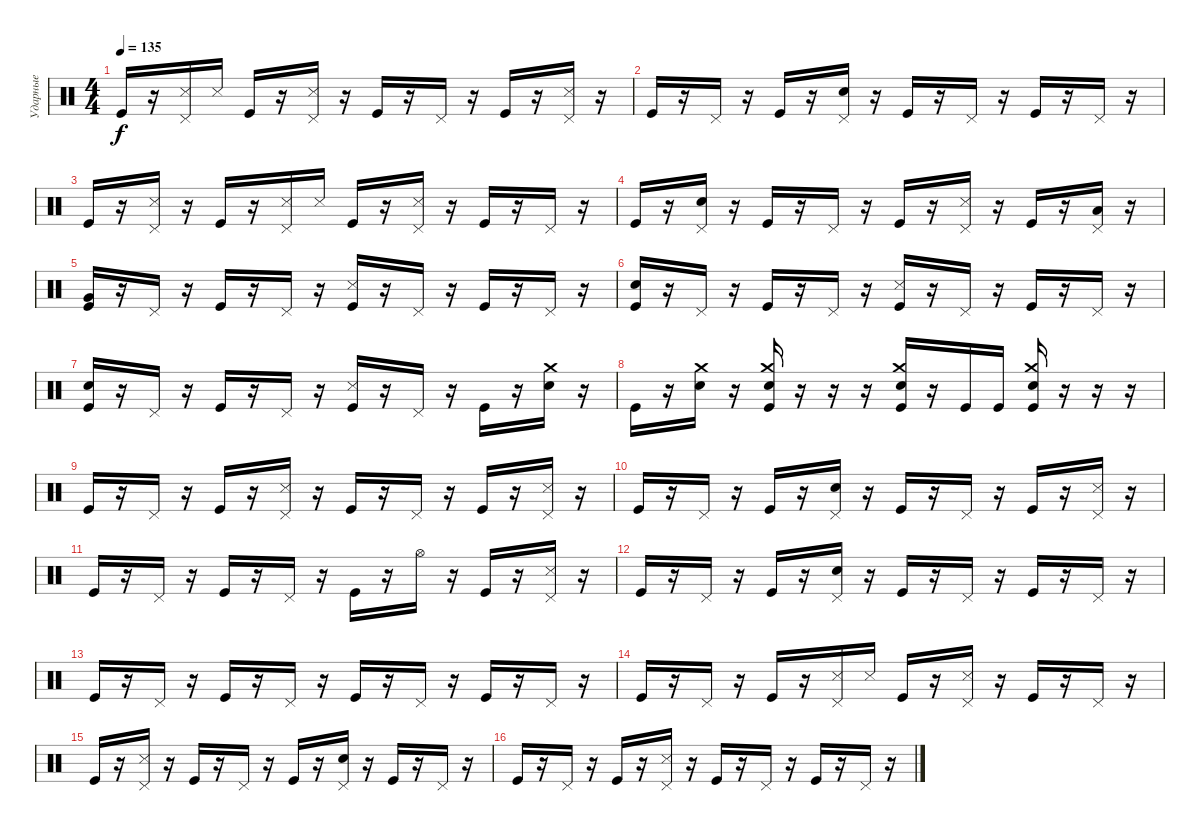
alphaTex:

\track ("Ударные" "Ударные") {instrument percussion}
\staff {score}
\articulation defaults
\ts (4 4)
\tempo 135
\clef neutral
\ks c "Kick (hit)".16{dy f}
r.16 ("Snare (side stick) 3" "Pedal Hi-Hat (hit)").16 "Snare (side stick) 3".16 "Kick (hit)".16 r.16 ("Snare (side stick) 3" "Pedal Hi-Hat (hit)").16 r.16 "Kick (hit)".16 r.16 "Pedal Hi-Hat (hit)".16 r.16 "Kick (hit)".16 r.16 ("Snare (side stick) 3" "Pedal Hi-Hat (hit)").16 r.16 |
"Kick (hit)".16 r.16 "Pedal Hi-Hat (hit)".16 r.16 "Kick (hit)".16 r.16 ("Snare (hit) 2" "Pedal Hi-Hat (hit)").16 r.16 "Kick (hit)".16 r.16 "Pedal Hi-Hat (hit)".16 r.16 "Kick (hit)".16 r.16 "Pedal Hi-Hat (hit)".16 r.16 |
"Kick (hit)".16 r.16 ("Snare (side stick) 3" "Pedal Hi-Hat (hit)").16 r.16 "Kick (hit)".16 r.16 ("Snare (side stick) 3" "Pedal Hi-Hat (hit)").16 "Snare (side stick) 3".16 "Kick (hit)".16 r.16 ("Snare (side stick) 3" "Pedal Hi-Hat (hit)").16 r.16 "Kick (hit)".16 r.16 "Pedal Hi-Hat (hit)".16 r.16 |
"Kick (hit)".16 r.16 ("Snare (hit) 2" "Pedal Hi-Hat (hit)").16 r.16 "Kick (hit)".16 r.16 "Pedal Hi-Hat (hit)".16 r.16 "Kick (hit)".16 r.16 ("Snare (side stick) 3" "Pedal Hi-Hat (hit)").16 r.16 "Kick (hit)".16 r.16 ("Low Tom (hit)" "Pedal Hi-Hat (hit)").16 r.16 |
("Very Low Tom (hit)" "Kick (hit)").16 r.16 "Pedal Hi-Hat (hit)".16 r.16 "Kick (hit)".16 r.16 "Pedal Hi-Hat (hit)".16 r.16 ("Snare (side stick) 3" "Kick (hit)").16 r.16 "Pedal Hi-Hat (hit)".16 r.16 "Kick (hit)".16 r.16 "Pedal Hi-Hat (hit)".16 r.16 |
("Snare (hit) 2" "Kick (hit)").16 r.16 "Pedal Hi-Hat (hit)".16 r.16 "Kick (hit)".16 r.16 "Pedal Hi-Hat (hit)".16 r.16 ("Snare (side stick) 3" "Kick (hit)").16 r.16 "Pedal Hi-Hat (hit)".16 r.16 "Kick (hit)".16 r.16 "Pedal Hi-Hat (hit)".16 r.16 |
("Snare (hit) 2" "Kick (hit)").16 r.16 "Pedal Hi-Hat (hit)".16 r.16 "Kick (hit)".16 r.16 "Pedal Hi-Hat (hit)".16 r.16 ("Snare (side stick) 3" "Kick (hit)").16 r.16 "Pedal Hi-Hat (hit)".16 r.16 "Kick (hit)".16 r.16 ("Crash medium (hit)" "Electric Snare (hit)").16 r.16 |
"Kick (hit)".16 r.16 ("Crash medium (hit)" "Electric Snare (hit)").16 r.16 ("Crash medium (hit)" "Electric Snare (hit)" "Kick (hit)").16 r.16 r.16 r.16 ("Crash medium (hit)" "Electric Snare (hit)" "Kick (hit)").16 r.16 "Kick (hit)".16 "Kick (hit)".16 ("Crash medium (hit)" "Electric Snare (hit)" "Kick (hit)").16 r.16 r.16 r.16 |
"Kick (hit)".16 r.16 "Pedal Hi-Hat (hit)".16 r.16 "Kick (hit)".16 r.16 ("Snare (side stick) 3" "Pedal Hi-Hat (hit)").16 r.16 "Kick (hit)".16 r.16 "Pedal Hi-Hat (hit)".16 r.16 "Kick (hit)".16 r.16 ("Snare (side stick) 3" "Pedal Hi-Hat (hit)").16 r.16 |
"Kick (hit)".16 r.16 "Pedal Hi-Hat (hit)".16 r.16 "Kick (hit)".16 r.16 ("Snare (hit) 2" "Pedal Hi-Hat (hit)").16 r.16 "Kick (hit)".16 r.16 "Pedal Hi-Hat (hit)".16 r.16 "Kick (hit)".16 r.16 ("Snare (side stick) 3" "Pedal Hi-Hat (hit)").16 r.16 |
"Kick (hit)".16 r.16 "Pedal Hi-Hat (hit)".16 r.16 "Kick (hit)".16 r.16 "Pedal Hi-Hat (hit)".16 r.16 "Kick (hit)".16 r.16 "Hi-Hat (open)".16 r.16 "Kick (hit)".16 r.16 ("Snare (side stick) 3" "Pedal Hi-Hat (hit)").16 r.16 |
"Kick (hit)".16 r.16 "Pedal Hi-Hat (hit)".16 r.16 "Kick (hit)".16 r.16 ("Snare (hit) 2" "Pedal Hi-Hat (hit)").16 r.16 "Kick (hit)".16 r.16 "Pedal Hi-Hat (hit)".16 r.16 "Kick (hit)".16 r.16 "Pedal Hi-Hat (hit)".16 r.16 |
"Kick (hit)".16 r.16 "Pedal Hi-Hat (hit)".16 r.16 "Kick (hit)".16 r.16 "Pedal Hi-Hat (hit)".16 r.16 "Kick (hit)".16 r.16 "Pedal Hi-Hat (hit)".16 r.16 "Kick (hit)".16 r.16 "Pedal Hi-Hat (hit)".16 r.16 |
"Kick (hit)".16 r.16 "Pedal Hi-Hat (hit)".16 r.16 "Kick (hit)".16 r.16 ("Snare (side stick) 3" "Pedal Hi-Hat (hit)").16 "Snare (side stick) 3".16 "Kick (hit)".16 r.16 ("Snare (side stick) 3" "Pedal Hi-Hat (hit)").16 r.16 "Kick (hit)".16 r.16 "Pedal Hi-Hat (hit)".16 r.16 |
"Kick (hit)".16 r.16 ("Snare (side stick) 3" "Pedal Hi-Hat (hit)").16 r.16 "Kick (hit)".16 r.16 "Pedal Hi-Hat (hit)".16 r.16 "Kick (hit)".16 r.16 ("Snare (hit) 2" "Pedal Hi-Hat (hit)").16 r.16 "Kick (hit)".16 r.16 "Pedal Hi-Hat (hit)".16 r.16 |
"Kick (hit)".16 r.16 "Pedal Hi-Hat (hit)".16 r.16 "Kick (hit)".16 r.16 ("Snare (side stick) 3" "Pedal Hi-Hat (hit)").16 r.16 "Kick (hit)".16 r.16 "Pedal Hi-Hat (hit)".16 r.16 "Kick (hit)".16 r.16 "Pedal Hi-Hat (hit)".16 r.16
